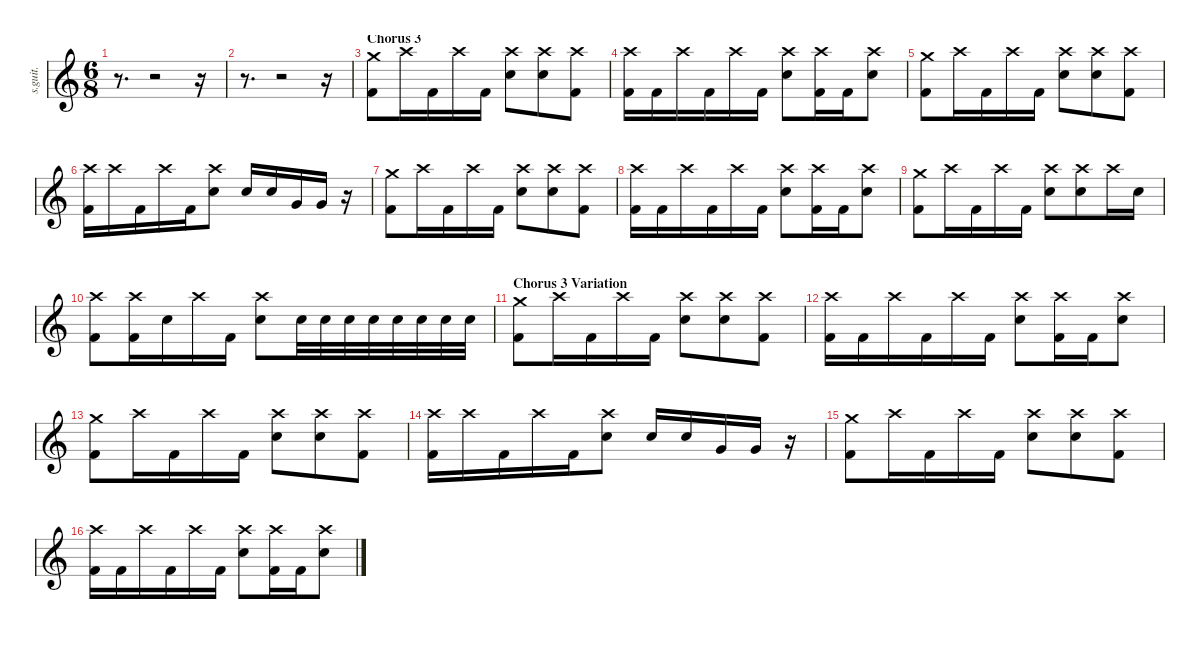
\defaultSystemsLayout 4
\hideDynamics
\bracketExtendMode nobrackets
\track ("Shannon (Drums)" "s.guit.") {instrument percussion}
\staff {score}
\articulation defaults
\ts (6 8)
\tempo (94 hide)
\clef g2
\ks c
r.8{d dy f} r.2 r.16 |
r.8{d} r.2 r.16 |
\section ("" "Chorus 3")
("Crash medium (hit)" "Kick (hit) 2").8{lyrics (0 "") lyrics (1 "") lyrics (2 "") lyrics (3 "") lyrics (4 "")} "Crash high (hit)".16{lyrics (0 "") lyrics (1 "") lyrics (2 "") lyrics (3 "") lyrics (4 "")} "Kick (hit) 2".16{lyrics (0 "") lyrics (1 "") lyrics (2 "") lyrics (3 "") lyrics (4 "")} "Crash high (hit)".16{lyrics (0 "") lyrics (1 "") lyrics (2 "") lyrics (3 "") lyrics (4 "")} "Kick (hit) 2".16{lyrics (0 "") lyrics (1 "") lyrics (2 "") lyrics (3 "") lyrics (4 "")} ("Crash high (hit)" "Electric Snare (hit)").8{lyrics (0 "") lyrics (1 "") lyrics (2 "") lyrics (3 "") lyrics (4 "")} ("Crash high (hit)" "Electric Snare (hit)").8{lyrics (0 "") lyrics (1 "") lyrics (2 "") lyrics (3 "") lyrics (4 "")} ("Crash high (hit)" "Kick (hit) 2").8{lyrics (0 "") lyrics (1 "") lyrics (2 "") lyrics (3 "") lyrics (4 "")} |
("Crash high (hit)" "Kick (hit) 2").16{lyrics (0 "") lyrics (1 "") lyrics (2 "") lyrics (3 "") lyrics (4 "")} "Kick (hit) 2".16{lyrics (0 "") lyrics (1 "") lyrics (2 "") lyrics (3 "") lyrics (4 "")} "Crash high (hit)".16{lyrics (0 "") lyrics (1 "") lyrics (2 "") lyrics (3 "") lyrics (4 "")} "Kick (hit) 2".16{lyrics (0 "") lyrics (1 "") lyrics (2 "") lyrics (3 "") lyrics (4 "")} "Crash high (hit)".16{lyrics (0 "") lyrics (1 "") lyrics (2 "") lyrics (3 "") lyrics (4 "")} "Kick (hit) 2".16{lyrics (0 "") lyrics (1 "") lyrics (2 "") lyrics (3 "") lyrics (4 "")} ("Crash high (hit)" "Electric Snare (hit)").8{lyrics (0 "") lyrics (1 "") lyrics (2 "") lyrics (3 "") lyrics (4 "")} ("Crash high (hit)" "Kick (hit) 2").16{lyrics (0 "") lyrics (1 "") lyrics (2 "") lyrics (3 "") lyrics (4 "")} "Kick (hit) 2".16{lyrics (0 "") lyrics (1 "") lyrics (2 "") lyrics (3 "") lyrics (4 "")} ("Crash high (hit)" "Electric Snare (hit)").8{lyrics (0 "") lyrics (1 "") lyrics (2 "") lyrics (3 "") lyrics (4 "")} |
("Crash medium (hit)" "Kick (hit) 2").8{lyrics (0 "") lyrics (1 "") lyrics (2 "") lyrics (3 "") lyrics (4 "")} "Crash high (hit)".16{lyrics (0 "") lyrics (1 "") lyrics (2 "") lyrics (3 "") lyrics (4 "")} "Kick (hit) 2".16{lyrics (0 "") lyrics (1 "") lyrics (2 "") lyrics (3 "") lyrics (4 "")} "Crash high (hit)".16{lyrics (0 "") lyrics (1 "") lyrics (2 "") lyrics (3 "") lyrics (4 "")} "Kick (hit) 2".16{lyrics (0 "") lyrics (1 "") lyrics (2 "") lyrics (3 "") lyrics (4 "")} ("Crash high (hit)" "Electric Snare (hit)").8{lyrics (0 "") lyrics (1 "") lyrics (2 "") lyrics (3 "") lyrics (4 "")} ("Crash high (hit)" "Electric Snare (hit)").8{lyrics (0 "") lyrics (1 "") lyrics (2 "") lyrics (3 "") lyrics (4 "")} ("Crash high (hit)" "Kick (hit) 2").8{lyrics (0 "") lyrics (1 "") lyrics (2 "") lyrics (3 "") lyrics (4 "")} |
("Crash high (hit)" "Kick (hit) 2").16{lyrics (0 "") lyrics (1 "") lyrics (2 "") lyrics (3 "") lyrics (4 "")} "Crash high (hit)".16{lyrics (0 "") lyrics (1 "") lyrics (2 "") lyrics (3 "") lyrics (4 "")} "Kick (hit) 2".16{lyrics (0 "") lyrics (1 "") lyrics (2 "") lyrics (3 "") lyrics (4 "")} "Crash high (hit)".16{lyrics (0 "") lyrics (1 "") lyrics (2 "") lyrics (3 "") lyrics (4 "")} "Kick (hit) 2".16{lyrics (0 "") lyrics (1 "") lyrics (2 "") lyrics (3 "") lyrics (4 "")} ("Crash high (hit)" "Electric Snare (hit)").8{lyrics (0 "") lyrics (1 "") lyrics (2 "") lyrics (3 "") lyrics (4 "")} "Electric Snare (hit)".16{lyrics (0 "") lyrics (1 "") lyrics (2 "") lyrics (3 "") lyrics (4 "")} "Electric Snare (hit)".16{lyrics (0 "") lyrics (1 "") lyrics (2 "") lyrics (3 "") lyrics (4 "")} "Very Low Tom (hit)".16{lyrics (0 "") lyrics (1 "") lyrics (2 "") lyrics (3 "") lyrics (4 "")} "Very Low Tom (hit)".16{lyrics (0 "") lyrics (1 "") lyrics (2 "") lyrics (3 "") lyrics (4 "")} r.16 |
("Crash medium (hit)" "Kick (hit) 2").8{lyrics (0 "") lyrics (1 "") lyrics (2 "") lyrics (3 "") lyrics (4 "")} "Crash high (hit)".16{lyrics (0 "") lyrics (1 "") lyrics (2 "") lyrics (3 "") lyrics (4 "")} "Kick (hit) 2".16{lyrics (0 "") lyrics (1 "") lyrics (2 "") lyrics (3 "") lyrics (4 "")} "Crash high (hit)".16{lyrics (0 "") lyrics (1 "") lyrics (2 "") lyrics (3 "") lyrics (4 "")} "Kick (hit) 2".16{lyrics (0 "") lyrics (1 "") lyrics (2 "") lyrics (3 "") lyrics (4 "")} ("Crash high (hit)" "Electric Snare (hit)").8{lyrics (0 "") lyrics (1 "") lyrics (2 "") lyrics (3 "") lyrics (4 "")} ("Crash high (hit)" "Electric Snare (hit)").8{lyrics (0 "") lyrics (1 "") lyrics (2 "") lyrics (3 "") lyrics (4 "")} ("Crash high (hit)" "Kick (hit) 2").8{lyrics (0 "") lyrics (1 "") lyrics (2 "") lyrics (3 "") lyrics (4 "")} |
("Crash high (hit)" "Kick (hit) 2").16{lyrics (0 "") lyrics (1 "") lyrics (2 "") lyrics (3 "") lyrics (4 "")} "Kick (hit) 2".16{lyrics (0 "") lyrics (1 "") lyrics (2 "") lyrics (3 "") lyrics (4 "")} "Crash high (hit)".16{lyrics (0 "") lyrics (1 "") lyrics (2 "") lyrics (3 "") lyrics (4 "")} "Kick (hit) 2".16{lyrics (0 "") lyrics (1 "") lyrics (2 "") lyrics (3 "") lyrics (4 "")} "Crash high (hit)".16{lyrics (0 "") lyrics (1 "") lyrics (2 "") lyrics (3 "") lyrics (4 "")} "Kick (hit) 2".16{lyrics (0 "") lyrics (1 "") lyrics (2 "") lyrics (3 "") lyrics (4 "")} ("Crash high (hit)" "Electric Snare (hit)").8{lyrics (0 "") lyrics (1 "") lyrics (2 "") lyrics (3 "") lyrics (4 "")} ("Crash high (hit)" "Kick (hit) 2").16{lyrics (0 "") lyrics (1 "") lyrics (2 "") lyrics (3 "") lyrics (4 "")} "Kick (hit) 2".16{lyrics (0 "") lyrics (1 "") lyrics (2 "") lyrics (3 "") lyrics (4 "")} ("Crash high (hit)" "Electric Snare (hit)").8{lyrics (0 "") lyrics (1 "") lyrics (2 "") lyrics (3 "") lyrics (4 "")} |
("Crash medium (hit)" "Kick (hit) 2").8{lyrics (0 "") lyrics (1 "") lyrics (2 "") lyrics (3 "") lyrics (4 "")} "Crash high (hit)".16{lyrics (0 "") lyrics (1 "") lyrics (2 "") lyrics (3 "") lyrics (4 "")} "Kick (hit) 2".16{lyrics (0 "") lyrics (1 "") lyrics (2 "") lyrics (3 "") lyrics (4 "")} "Crash high (hit)".16{lyrics (0 "") lyrics (1 "") lyrics (2 "") lyrics (3 "") lyrics (4 "")} "Kick (hit) 2".16{lyrics (0 "") lyrics (1 "") lyrics (2 "") lyrics (3 "") lyrics (4 "")} ("Crash high (hit)" "Electric Snare (hit)").8{lyrics (0 "") lyrics (1 "") lyrics (2 "") lyrics (3 "") lyrics (4 "")} ("Crash high (hit)" "Electric Snare (hit)").8{lyrics (0 "") lyrics (1 "") lyrics (2 "") lyrics (3 "") lyrics (4 "")} "Crash high (hit)".16{lyrics (0 "") lyrics (1 "") lyrics (2 "") lyrics (3 "") lyrics (4 "")} "Electric Snare (hit)".16{lyrics (0 "") lyrics (1 "") lyrics (2 "") lyrics (3 "") lyrics (4 "")} |
("Crash high (hit)" "Kick (hit) 2").8{lyrics (0 "") lyrics (1 "") lyrics (2 "") lyrics (3 "") lyrics (4 "")} ("Crash high (hit)" "Kick (hit) 2").16{lyrics (0 "") lyrics (1 "") lyrics (2 "") lyrics (3 "") lyrics (4 "")} "Electric Snare (hit)".16{lyrics (0 "") lyrics (1 "") lyrics (2 "") lyrics (3 "") lyrics (4 "")} "Crash high (hit)".16{lyrics (0 "") lyrics (1 "") lyrics (2 "") lyrics (3 "") lyrics (4 "")} "Kick (hit) 2".16{lyrics (0 "") lyrics (1 "") lyrics (2 "") lyrics (3 "") lyrics (4 "")} ("Crash high (hit)" "Electric Snare (hit)").8{lyrics (0 "") lyrics (1 "") lyrics (2 "") lyrics (3 "") lyrics (4 "")} "Electric Snare (hit)".32{lyrics (0 "") lyrics (1 "") lyrics (2 "") lyrics (3 "") lyrics (4 "")} "Electric Snare (hit)".32{lyrics (0 "") lyrics (1 "") lyrics (2 "") lyrics (3 "") lyrics (4 "")} "Electric Snare (hit)".32{lyrics (0 "") lyrics (1 "") lyrics (2 "") lyrics (3 "") lyrics (4 "")} "Electric Snare (hit)".32{lyrics (0 "") lyrics (1 "") lyrics (2 "") lyrics (3 "") lyrics (4 "")} "Electric Snare (hit)".32{lyrics (0 "") lyrics (1 "") lyrics (2 "") lyrics (3 "") lyrics (4 "")} "Electric Snare (hit)".32{lyrics (0 "") lyrics (1 "") lyrics (2 "") lyrics (3 "") lyrics (4 "")} "Electric Snare (hit)".32{lyrics (0 "") lyrics (1 "") lyrics (2 "") lyrics (3 "") lyrics (4 "")} "Electric Snare (hit)".32{lyrics (0 "") lyrics (1 "") lyrics (2 "") lyrics (3 "") lyrics (4 "")} |
\section ("" "Chorus 3 Variation")
("Crash medium (hit)" "Kick (hit) 2").8{lyrics (0 "") lyrics (1 "") lyrics (2 "") lyrics (3 "") lyrics (4 "")} "Crash high (hit)".16{lyrics (0 "") lyrics (1 "") lyrics (2 "") lyrics (3 "") lyrics (4 "")} "Kick (hit) 2".16{lyrics (0 "") lyrics (1 "") lyrics (2 "") lyrics (3 "") lyrics (4 "")} "Crash high (hit)".16{lyrics (0 "") lyrics (1 "") lyrics (2 "") lyrics (3 "") lyrics (4 "")} "Kick (hit) 2".16{lyrics (0 "") lyrics (1 "") lyrics (2 "") lyrics (3 "") lyrics (4 "")} ("Crash high (hit)" "Electric Snare (hit)").8{lyrics (0 "") lyrics (1 "") lyrics (2 "") lyrics (3 "") lyrics (4 "")} ("Crash high (hit)" "Electric Snare (hit)").8{lyrics (0 "") lyrics (1 "") lyrics (2 "") lyrics (3 "") lyrics (4 "")} ("Crash high (hit)" "Kick (hit) 2").8{lyrics (0 "") lyrics (1 "") lyrics (2 "") lyrics (3 "") lyrics (4 "")} |
("Crash high (hit)" "Kick (hit) 2").16{lyrics (0 "") lyrics (1 "") lyrics (2 "") lyrics (3 "") lyrics (4 "")} "Kick (hit) 2".16{lyrics (0 "") lyrics (1 "") lyrics (2 "") lyrics (3 "") lyrics (4 "")} "Crash high (hit)".16{lyrics (0 "") lyrics (1 "") lyrics (2 "") lyrics (3 "") lyrics (4 "")} "Kick (hit) 2".16{lyrics (0 "") lyrics (1 "") lyrics (2 "") lyrics (3 "") lyrics (4 "")} "Crash high (hit)".16{lyrics (0 "") lyrics (1 "") lyrics (2 "") lyrics (3 "") lyrics (4 "")} "Kick (hit) 2".16{lyrics (0 "") lyrics (1 "") lyrics (2 "") lyrics (3 "") lyrics (4 "")} ("Crash high (hit)" "Electric Snare (hit)").8{lyrics (0 "") lyrics (1 "") lyrics (2 "") lyrics (3 "") lyrics (4 "")} ("Crash high (hit)" "Kick (hit) 2").16{lyrics (0 "") lyrics (1 "") lyrics (2 "") lyrics (3 "") lyrics (4 "")} "Kick (hit) 2".16{lyrics (0 "") lyrics (1 "") lyrics (2 "") lyrics (3 "") lyrics (4 "")} ("Crash high (hit)" "Electric Snare (hit)").8{lyrics (0 "") lyrics (1 "") lyrics (2 "") lyrics (3 "") lyrics (4 "")} |
("Crash medium (hit)" "Kick (hit) 2").8{lyrics (0 "") lyrics (1 "") lyrics (2 "") lyrics (3 "") lyrics (4 "")} "Crash high (hit)".16{lyrics (0 "") lyrics (1 "") lyrics (2 "") lyrics (3 "") lyrics (4 "")} "Kick (hit) 2".16{lyrics (0 "") lyrics (1 "") lyrics (2 "") lyrics (3 "") lyrics (4 "")} "Crash high (hit)".16{lyrics (0 "") lyrics (1 "") lyrics (2 "") lyrics (3 "") lyrics (4 "")} "Kick (hit) 2".16{lyrics (0 "") lyrics (1 "") lyrics (2 "") lyrics (3 "") lyrics (4 "")} ("Crash high (hit)" "Electric Snare (hit)").8{lyrics (0 "") lyrics (1 "") lyrics (2 "") lyrics (3 "") lyrics (4 "")} ("Crash high (hit)" "Electric Snare (hit)").8{lyrics (0 "") lyrics (1 "") lyrics (2 "") lyrics (3 "") lyrics (4 "")} ("Crash high (hit)" "Kick (hit) 2").8{lyrics (0 "") lyrics (1 "") lyrics (2 "") lyrics (3 "") lyrics (4 "")} |
("Crash high (hit)" "Kick (hit) 2").16{lyrics (0 "") lyrics (1 "") lyrics (2 "") lyrics (3 "") lyrics (4 "")} "Crash high (hit)".16{lyrics (0 "") lyrics (1 "") lyrics (2 "") lyrics (3 "") lyrics (4 "")} "Kick (hit) 2".16{lyrics (0 "") lyrics (1 "") lyrics (2 "") lyrics (3 "") lyrics (4 "")} "Crash high (hit)".16{lyrics (0 "") lyrics (1 "") lyrics (2 "") lyrics (3 "") lyrics (4 "")} "Kick (hit) 2".16{lyrics (0 "") lyrics (1 "") lyrics (2 "") lyrics (3 "") lyrics (4 "")} ("Crash high (hit)" "Electric Snare (hit)").8{lyrics (0 "") lyrics (1 "") lyrics (2 "") lyrics (3 "") lyrics (4 "")} "Electric Snare (hit)".16{lyrics (0 "") lyrics (1 "") lyrics (2 "") lyrics (3 "") lyrics (4 "")} "Electric Snare (hit)".16{lyrics (0 "") lyrics (1 "") lyrics (2 "") lyrics (3 "") lyrics (4 "")} "Very Low Tom (hit)".16{lyrics (0 "") lyrics (1 "") lyrics (2 "") lyrics (3 "") lyrics (4 "")} "Very Low Tom (hit)".16{lyrics (0 "") lyrics (1 "") lyrics (2 "") lyrics (3 "") lyrics (4 "")} r.16 |
("Crash medium (hit)" "Kick (hit) 2").8{lyrics (0 "") lyrics (1 "") lyrics (2 "") lyrics (3 "") lyrics (4 "")} "Crash high (hit)".16{lyrics (0 "") lyrics (1 "") lyrics (2 "") lyrics (3 "") lyrics (4 "")} "Kick (hit) 2".16{lyrics (0 "") lyrics (1 "") lyrics (2 "") lyrics (3 "") lyrics (4 "")} "Crash high (hit)".16{lyrics (0 "") lyrics (1 "") lyrics (2 "") lyrics (3 "") lyrics (4 "")} "Kick (hit) 2".16{lyrics (0 "") lyrics (1 "") lyrics (2 "") lyrics (3 "") lyrics (4 "")} ("Crash high (hit)" "Electric Snare (hit)").8{lyrics (0 "") lyrics (1 "") lyrics (2 "") lyrics (3 "") lyrics (4 "")} ("Crash high (hit)" "Electric Snare (hit)").8{lyrics (0 "") lyrics (1 "") lyrics (2 "") lyrics (3 "") lyrics (4 "")} ("Crash high (hit)" "Kick (hit) 2").8{lyrics (0 "") lyrics (1 "") lyrics (2 "") lyrics (3 "") lyrics (4 "")} |
("Crash high (hit)" "Kick (hit) 2").16{lyrics (0 "") lyrics (1 "") lyrics (2 "") lyrics (3 "") lyrics (4 "")} "Kick (hit) 2".16{lyrics (0 "") lyrics (1 "") lyrics (2 "") lyrics (3 "") lyrics (4 "")} "Crash high (hit)".16{lyrics (0 "") lyrics (1 "") lyrics (2 "") lyrics (3 "") lyrics (4 "")} "Kick (hit) 2".16{lyrics (0 "") lyrics (1 "") lyrics (2 "") lyrics (3 "") lyrics (4 "")} "Crash high (hit)".16{lyrics (0 "") lyrics (1 "") lyrics (2 "") lyrics (3 "") lyrics (4 "")} "Kick (hit) 2".16{lyrics (0 "") lyrics (1 "") lyrics (2 "") lyrics (3 "") lyrics (4 "")} ("Crash high (hit)" "Electric Snare (hit)").8{lyrics (0 "") lyrics (1 "") lyrics (2 "") lyrics (3 "") lyrics (4 "")} ("Crash high (hit)" "Kick (hit) 2").16{lyrics (0 "") lyrics (1 "") lyrics (2 "") lyrics (3 "") lyrics (4 "")} "Kick (hit) 2".16{lyrics (0 "") lyrics (1 "") lyrics (2 "") lyrics (3 "") lyrics (4 "")} ("Crash high (hit)" "Electric Snare (hit)").8{lyrics (0 "") lyrics (1 "") lyrics (2 "") lyrics (3 "") lyrics (4 "")}
